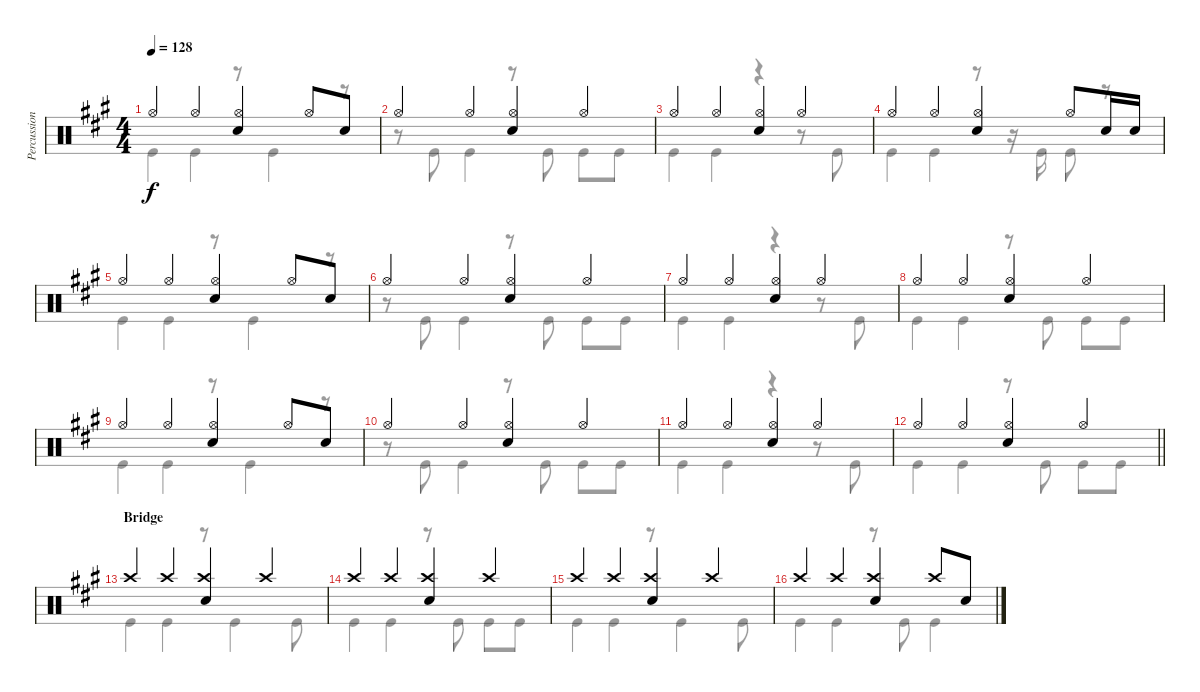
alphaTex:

\track ("Percussion" "Percussion") {instrument percussion}
\staff {score}
\articulation defaults
\voice
\ts (4 4)
\tempo 128
\clef neutral
\ks f#minor "Hi-Hat (open)".4{dy f} "Hi-Hat (open)".4
("Hi-Hat (open)" "Electric Snare (hit)").4 "Hi-Hat (open)".8 "Electric Snare (hit)".8 |
"Hi-Hat (open)".4 "Hi-Hat (open)".4 ("Hi-Hat (open)" "Electric Snare (hit)").4 "Hi-Hat (open)".4 |
"Hi-Hat (open)".4 "Hi-Hat (open)".4 ("Hi-Hat (open)" "Electric Snare (hit)").4 "Hi-Hat (open)".4 |
"Hi-Hat (open)".4 "Hi-Hat (open)".4 ("Hi-Hat (open)" "Electric Snare (hit)").4 "Hi-Hat (open)".8 "Electric Snare (hit)".16 "Electric Snare (hit)".16 |
"Hi-Hat (open)".4 "Hi-Hat (open)".4 ("Hi-Hat (open)" "Electric Snare (hit)").4 "Hi-Hat (open)".8 "Electric Snare (hit)".8 |
"Hi-Hat (open)".4 "Hi-Hat (open)".4 ("Hi-Hat (open)" "Electric Snare (hit)").4 "Hi-Hat (open)".4 |
"Hi-Hat (open)".4 "Hi-Hat (open)".4 ("Hi-Hat (open)" "Electric Snare (hit)").4 "Hi-Hat (open)".4 |
"Hi-Hat (open)".4 "Hi-Hat (open)".4 ("Hi-Hat (open)" "Electric Snare (hit)").4 "Hi-Hat (open)".4 |
"Hi-Hat (open)".4 "Hi-Hat (open)".4 ("Hi-Hat (open)" "Electric Snare (hit)").4 "Hi-Hat (open)".8 "Electric Snare (hit)".8 |
"Hi-Hat (open)".4 "Hi-Hat (open)".4 ("Hi-Hat (open)" "Electric Snare (hit)").4 "Hi-Hat (open)".4 |
"Hi-Hat (open)".4 "Hi-Hat (open)".4 ("Hi-Hat (open)" "Electric Snare (hit)").4 "Hi-Hat (open)".4 |
\barLineRight lightlight "Hi-Hat (open)".4 "Hi-Hat (open)".4
("Hi-Hat (open)" "Electric Snare (hit)").4 "Hi-Hat (open)".4 |
\section ("" "Bridge")
"Crash high (hit)".4 "Crash high (hit)".4 ("Crash high (hit)" "Electric Snare (hit)").4 "Crash high (hit)".4 |
"Crash high (hit)".4 "Crash high (hit)".4 ("Crash high (hit)" "Electric Snare (hit)").4 "Crash high (hit)".4 |
"Crash high (hit)".4 "Crash high (hit)".4 ("Crash high (hit)" "Electric Snare (hit)").4 "Crash high (hit)".4 |
"Crash high (hit)".4 "Crash high (hit)".4 ("Crash high (hit)" "Electric Snare (hit)").4 "Crash high (hit)".8 "Electric Snare (hit)".8
\voice
\clef neutral
\ottava regular
\simile none
\ks f#minor "Kick (hit)".4{dy f} "Kick (hit)".4
r.8 "Kick (hit)".4 r.8 |
r.8 "Kick (hit)".8 "Kick (hit)".4 r.8 "Kick (hit)".8 "Kick (hit)".8 "Kick (hit)".8 |
"Kick (hit)".4 "Kick (hit)".4 r.4 r.8 "Kick (hit)".8 |
"Kick (hit)".4 "Kick (hit)".4 r.8 r.16 "Kick (hit)".16 "Kick (hit)".8 r.8 |
"Kick (hit)".4 "Kick (hit)".4 r.8 "Kick (hit)".4 r.8 |
r.8 "Kick (hit)".8 "Kick (hit)".4 r.8 "Kick (hit)".8 "Kick (hit)".8 "Kick (hit)".8 |
"Kick (hit)".4 "Kick (hit)".4 r.4 r.8 "Kick (hit)".8 |
"Kick (hit)".4 "Kick (hit)".4 r.8 "Kick (hit)".8 "Kick (hit)".8 "Kick (hit)".8 |
"Kick (hit)".4 "Kick (hit)".4 r.8 "Kick (hit)".4 r.8 |
r.8 "Kick (hit)".8 "Kick (hit)".4 r.8 "Kick (hit)".8 "Kick (hit)".8 "Kick (hit)".8 |
"Kick (hit)".4 "Kick (hit)".4 r.4 r.8 "Kick (hit)".8 |
\barLineRight lightlight "Kick (hit)".4 "Kick (hit)".4
r.8 "Kick (hit)".8 "Kick (hit)".8 "Kick (hit)".8 |
"Kick (hit)".4 "Kick (hit)".4 r.8 "Kick (hit)".4 "Kick (hit)".8 |
"Kick (hit)".4 "Kick (hit)".4 r.8 "Kick (hit)".8 "Kick (hit)".8 "Kick (hit)".8 |
"Kick (hit)".4 "Kick (hit)".4 r.8 "Kick (hit)".4 "Kick (hit)".8 |
"Kick (hit)".4 "Kick (hit)".4 r.8 "Kick (hit)".8 "Kick (hit)".4
